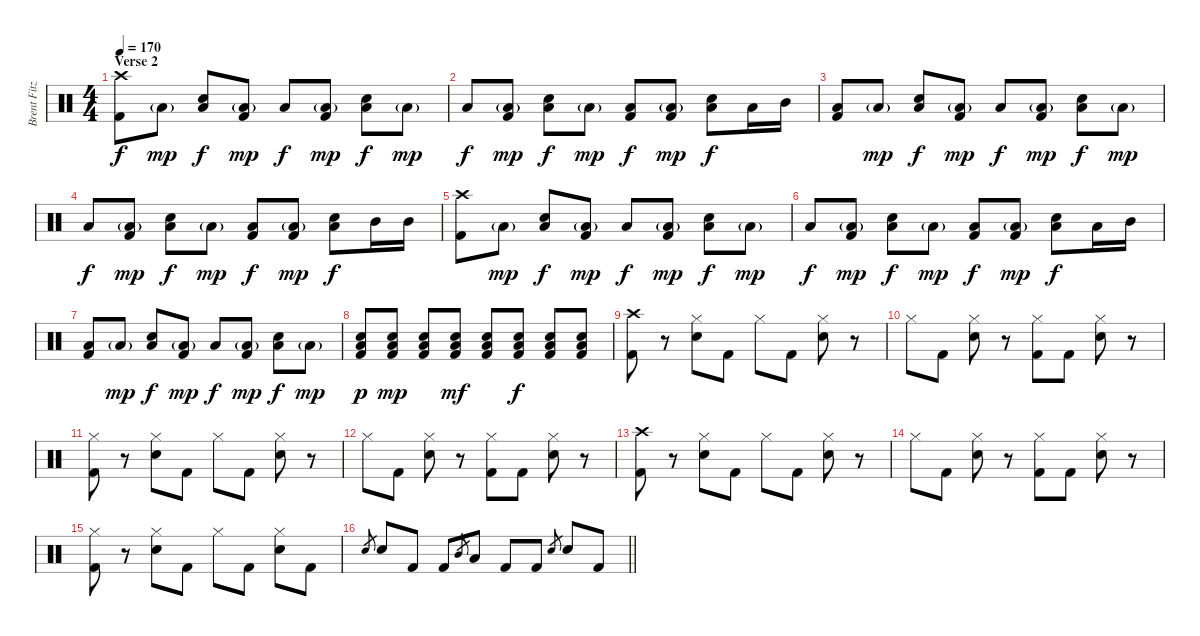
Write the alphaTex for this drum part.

\track ("Brent Fitz" "Brent Fitz") {instrument percussion}
\staff {score}
\articulation defaults
\ts (4 4)
\section ("" "Verse 2")
\tempo 170
\clef neutral
\ks c
("Crash high (hit)" "Kick (hit) 2").8{dy f} "Low Tom (hit)"{g}.8{dy mp} ("Low Tom (hit)" "Electric Snare (hit)").8{dy f} ("Low Tom (hit)"{g} "Kick (hit) 2").8{dy mp} "Low Tom (hit)".8{dy f} ("Low Tom (hit)"{g} "Kick (hit) 2").8{dy mp} ("Low Tom (hit)" "Electric Snare (hit)").8{dy f} "Low Tom (hit)"{g}.8{dy mp} |
"Low Tom (hit)".8{dy f} ("Low Tom (hit)"{g} "Kick (hit) 2").8{dy mp} ("Low Tom (hit)" "Electric Snare (hit)").8{dy f} "Low Tom (hit)"{g}.8{dy mp} ("Low Tom (hit)" "Kick (hit) 2").8{dy f} ("Low Tom (hit)"{g} "Kick (hit) 2").8{dy mp} ("Low Tom (hit)" "Electric Snare (hit)").8{dy f} "Low Tom (hit)".16 "Mid Tom (hit)".16 |
("Low Tom (hit)" "Kick (hit) 2").8 "Low Tom (hit)"{g}.8{dy mp} ("Low Tom (hit)" "Electric Snare (hit)").8{dy f} ("Low Tom (hit)"{g} "Kick (hit) 2").8{dy mp} "Low Tom (hit)".8{dy f} ("Low Tom (hit)"{g} "Kick (hit) 2").8{dy mp} ("Low Tom (hit)" "Electric Snare (hit)").8{dy f} "Low Tom (hit)"{g}.8{dy mp} |
"Low Tom (hit)".8{dy f} ("Low Tom (hit)"{g} "Kick (hit) 2").8{dy mp} ("Low Tom (hit)" "Electric Snare (hit)").8{dy f} "Low Tom (hit)"{g}.8{dy mp} ("Low Tom (hit)" "Kick (hit) 2").8{dy f} ("Low Tom (hit)"{g} "Kick (hit) 2").8{dy mp} ("Low Tom (hit)" "Electric Snare (hit)").8{dy f} "Mid Tom (hit)".16 "Mid Tom (hit)".16 |
("Crash high (hit)" "Kick (hit) 2").8 "Low Tom (hit)"{g}.8{dy mp} ("Low Tom (hit)" "Electric Snare (hit)").8{dy f} ("Low Tom (hit)"{g} "Kick (hit) 2").8{dy mp} "Low Tom (hit)".8{dy f} ("Low Tom (hit)"{g} "Kick (hit) 2").8{dy mp} ("Low Tom (hit)" "Electric Snare (hit)").8{dy f} "Low Tom (hit)"{g}.8{dy mp} |
"Low Tom (hit)".8{dy f} ("Low Tom (hit)"{g} "Kick (hit) 2").8{dy mp} ("Low Tom (hit)" "Electric Snare (hit)").8{dy f} "Low Tom (hit)"{g}.8{dy mp} ("Low Tom (hit)" "Kick (hit) 2").8{dy f} ("Low Tom (hit)"{g} "Kick (hit) 2").8{dy mp} ("Low Tom (hit)" "Electric Snare (hit)").8{dy f} "Low Tom (hit)".16 "Mid Tom (hit)".16 |
("Low Tom (hit)" "Kick (hit) 2").8 "Low Tom (hit)"{g}.8{dy mp} ("Low Tom (hit)" "Electric Snare (hit)").8{dy f} ("Low Tom (hit)"{g} "Kick (hit) 2").8{dy mp} "Low Tom (hit)".8{dy f} ("Low Tom (hit)"{g} "Kick (hit) 2").8{dy mp} ("Low Tom (hit)" "Electric Snare (hit)").8{dy f} "Low Tom (hit)"{g}.8{dy mp} |
("Low Tom (hit)" "Electric Snare (hit)" "Kick (hit) 2").8{dy p} ("Low Tom (hit)" "Electric Snare (hit)" "Kick (hit) 2").8{dy mp} ("Low Tom (hit)" "Electric Snare (hit)" "Kick (hit) 2").8 ("Low Tom (hit)" "Electric Snare (hit)" "Kick (hit) 2").8{dy mf} ("Low Tom (hit)" "Electric Snare (hit)" "Kick (hit) 2").8 ("Low Tom (hit)" "Electric Snare (hit)" "Kick (hit) 2").8{dy f} ("Low Tom (hit)" "Electric Snare (hit)" "Kick (hit) 2").8 ("Low Tom (hit)" "Electric Snare (hit)" "Kick (hit) 2").8 |
("Crash high (hit)" "Kick (hit) 2").8 r.8 ("Hi-Hat (closed)" "Electric Snare (hit)").8 "Kick (hit) 2".8 "Hi-Hat (closed)".8 "Kick (hit) 2".8 ("Hi-Hat (closed)" "Electric Snare (hit)").8 r.8 |
"Hi-Hat (closed)".8 "Kick (hit) 2".8 ("Hi-Hat (closed)" "Electric Snare (hit)").8 r.8 ("Hi-Hat (closed)" "Kick (hit) 2").8 "Kick (hit) 2".8 ("Hi-Hat (closed)" "Electric Snare (hit)").8 r.8 |
("Hi-Hat (closed)" "Kick (hit) 2").8 r.8 ("Hi-Hat (closed)" "Electric Snare (hit)").8 "Kick (hit) 2".8 "Hi-Hat (closed)".8 "Kick (hit) 2".8 ("Hi-Hat (closed)" "Electric Snare (hit)").8 r.8 |
"Hi-Hat (closed)".8 "Kick (hit) 2".8 ("Hi-Hat (closed)" "Electric Snare (hit)").8 r.8 ("Hi-Hat (closed)" "Kick (hit) 2").8 "Kick (hit) 2".8 ("Hi-Hat (closed)" "Electric Snare (hit)").8 r.8 |
("Crash high (hit)" "Kick (hit) 2").8 r.8 ("Hi-Hat (closed)" "Electric Snare (hit)").8 "Kick (hit) 2".8 "Hi-Hat (closed)".8 "Kick (hit) 2".8 ("Hi-Hat (closed)" "Electric Snare (hit)").8 r.8 |
"Hi-Hat (closed)".8 "Kick (hit) 2".8 ("Hi-Hat (closed)" "Electric Snare (hit)").8 r.8 ("Hi-Hat (closed)" "Kick (hit) 2").8 "Kick (hit) 2".8 ("Hi-Hat (closed)" "Electric Snare (hit)").8 r.8 |
("Hi-Hat (closed)" "Kick (hit) 2").8 r.8 ("Hi-Hat (closed)" "Electric Snare (hit)").8 "Kick (hit) 2".8 "Hi-Hat (closed)".8 "Kick (hit) 2".8 ("Hi-Hat (closed)" "Electric Snare (hit)").8 "Kick (hit) 2".8 |
\barLineRight lightlight "Electric Snare (hit)".8{gr} "Electric Snare (hit)".8 "Kick (hit) 2".8 "Kick (hit) 2".8 "Mid Tom (hit)".8{gr} "Low Tom (hit)".8 "Kick (hit) 2".8 "Kick (hit) 2".8 "Electric Snare (hit)".8{gr} "Electric Snare (hit)".8 "Kick (hit) 2".8
